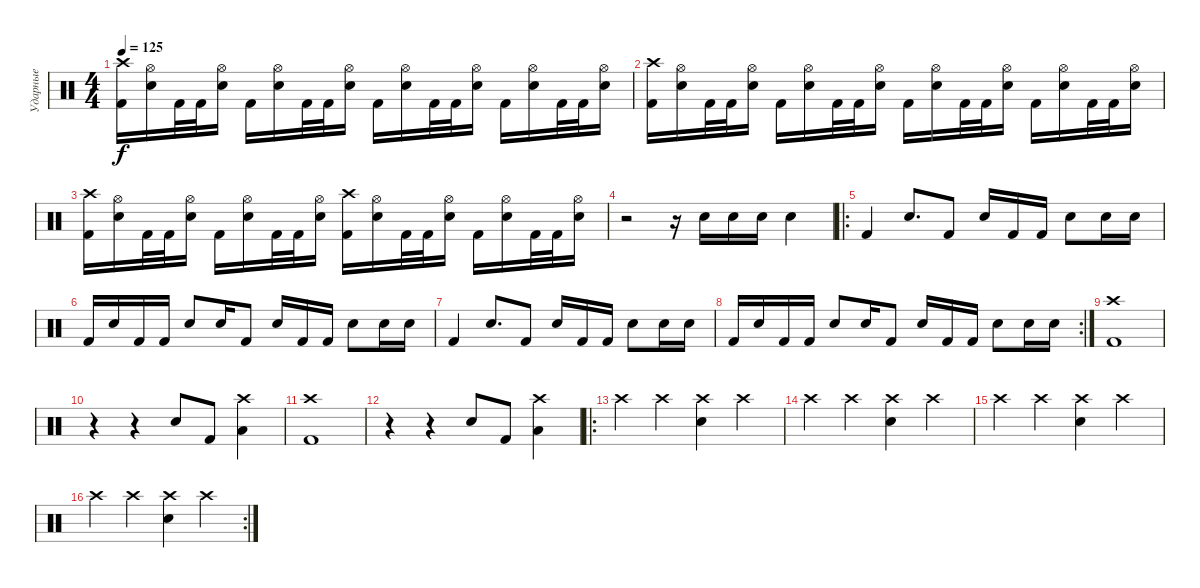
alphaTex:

\track ("Ударные" "Ударные") {instrument percussion}
\staff {score}
\articulation defaults
\ts (4 4)
\tempo 125
\clef neutral
\ks c
("Kick (hit) 2" "Crash high (hit)").16{dy f} ("Electric Snare (hit)" "Hi-Hat (open)").16 "Kick (hit) 2".32 "Kick (hit) 2".32 ("Electric Snare (hit)" "Hi-Hat (open)").16 "Kick (hit) 2".16 ("Electric Snare (hit)" "Hi-Hat (open)").16 "Kick (hit) 2".32 "Kick (hit) 2".32 ("Electric Snare (hit)" "Hi-Hat (open)").16 "Kick (hit) 2".16 ("Electric Snare (hit)" "Hi-Hat (open)").16 "Kick (hit) 2".32 "Kick (hit) 2".32 ("Electric Snare (hit)" "Hi-Hat (open)").16 "Kick (hit) 2".16 ("Electric Snare (hit)" "Hi-Hat (open)").16 "Kick (hit) 2".32 "Kick (hit) 2".32 ("Electric Snare (hit)" "Hi-Hat (open)").16 |
("Kick (hit) 2" "Crash high (hit)").16 ("Electric Snare (hit)" "Hi-Hat (open)").16 "Kick (hit) 2".32 "Kick (hit) 2".32 ("Electric Snare (hit)" "Hi-Hat (open)").16 "Kick (hit) 2".16 ("Electric Snare (hit)" "Hi-Hat (open)").16 "Kick (hit) 2".32 "Kick (hit) 2".32 ("Electric Snare (hit)" "Hi-Hat (open)").16 "Kick (hit) 2".16 ("Electric Snare (hit)" "Hi-Hat (open)").16 "Kick (hit) 2".32 "Kick (hit) 2".32 ("Electric Snare (hit)" "Hi-Hat (open)").16 "Kick (hit) 2".16 ("Electric Snare (hit)" "Hi-Hat (open)").16 "Kick (hit) 2".32 "Kick (hit) 2".32 ("Electric Snare (hit)" "Hi-Hat (open)").16 |
("Kick (hit) 2" "Crash high (hit)").16 ("Electric Snare (hit)" "Hi-Hat (open)").16 "Kick (hit) 2".32 "Kick (hit) 2".32 ("Electric Snare (hit)" "Hi-Hat (open)").16 "Kick (hit) 2".16 ("Electric Snare (hit)" "Hi-Hat (open)").16 "Kick (hit) 2".32 "Kick (hit) 2".32 ("Electric Snare (hit)" "Hi-Hat (open)").16 ("Kick (hit) 2" "Crash high (hit)").16 ("Electric Snare (hit)" "Hi-Hat (open)").16 "Kick (hit) 2".32 "Kick (hit) 2".32 ("Electric Snare (hit)" "Hi-Hat (open)").16 "Kick (hit) 2".16 ("Electric Snare (hit)" "Hi-Hat (open)").16 "Kick (hit) 2".32 "Kick (hit) 2".32 ("Electric Snare (hit)" "Hi-Hat (open)").16 |
r.2 r.16 "Electric Snare (hit)".16 "Electric Snare (hit)".16 "Electric Snare (hit)".16 "Electric Snare (hit)".4 |
\ro "Kick (hit) 2".4 "Electric Snare (hit)".8{d} "Kick (hit) 2".8 "Electric Snare (hit)".16 "Kick (hit) 2".16 "Kick (hit) 2".16 "Electric Snare (hit)".8 "Electric Snare (hit)".16 "Electric Snare (hit)".16
|
"Kick (hit) 2".16 "Electric Snare (hit)".16 "Kick (hit) 2".16 "Kick (hit) 2".16 "Electric Snare (hit)".8 "Electric Snare (hit)".16 "Kick (hit) 2".8 "Electric Snare (hit)".16 "Kick (hit) 2".16 "Kick (hit) 2".16 "Electric Snare (hit)".8 "Electric Snare (hit)".16 "Electric Snare (hit)".16 |
"Kick (hit) 2".4 "Electric Snare (hit)".8{d} "Kick (hit) 2".8 "Electric Snare (hit)".16 "Kick (hit) 2".16 "Kick (hit) 2".16 "Electric Snare (hit)".8 "Electric Snare (hit)".16 "Electric Snare (hit)".16 |
\rc 2 "Kick (hit) 2".16 "Electric Snare (hit)".16 "Kick (hit) 2".16 "Kick (hit) 2".16 "Electric Snare (hit)".8 "Electric Snare (hit)".16 "Kick (hit) 2".8 "Electric Snare (hit)".16 "Kick (hit) 2".16 "Kick (hit) 2".16 "Electric Snare (hit)".8 "Electric Snare (hit)".16 "Electric Snare (hit)".16
|
("Kick (hit) 2" "Crash high (hit)").1 |
r.4 r.4 "Electric Snare (hit)".8 "Kick (hit) 2".8 ("Low Tom (hit)" "Crash high (hit)").4 |
("Kick (hit) 2" "Crash high (hit)").1 |
r.4 r.4 "Electric Snare (hit)".8 "Kick (hit) 2".8 ("Low Tom (hit)" "Crash high (hit)").4 |
\ro "Crash high (hit)".4 "Crash high (hit)".4
("Crash high (hit)" "Electric Snare (hit)").4 "Crash high (hit)".4 |
"Crash high (hit)".4 "Crash high (hit)".4 ("Crash high (hit)" "Electric Snare (hit)").4 "Crash high (hit)".4 |
"Crash high (hit)".4 "Crash high (hit)".4 ("Crash high (hit)" "Electric Snare (hit)").4 "Crash high (hit)".4 |
\rc 2 "Crash high (hit)".4 "Crash high (hit)".4
("Crash high (hit)" "Electric Snare (hit)").4 "Crash high (hit)".4
